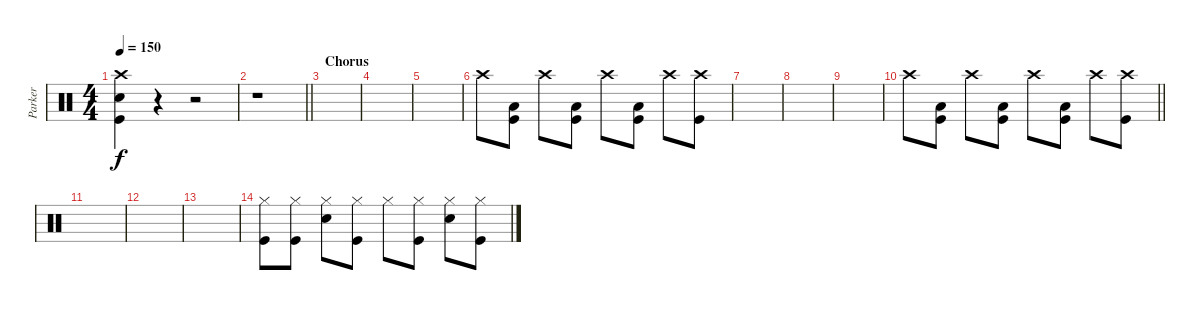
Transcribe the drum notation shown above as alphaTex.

\track ("Parker" "Parker") {instrument percussion}
\staff {score}
\articulation defaults
\ts (4 4)
\tempo 150
\clef neutral
\ks c
("Crash high (hit)" "Electric Snare (hit)" "Kick (hit)").4{dy f} r.4 r.2 |
\barLineRight lightlight
r.1 |
\section ("" "Chorus")
|
|
|
"Crash high (hit)".8 ("Low Floor Tom (hit)" "Kick (hit)").8 "Crash high (hit)".8 ("Low Floor Tom (hit)" "Kick (hit)").8 "Crash high (hit)".8 ("Low Floor Tom (hit)" "Kick (hit)").8 "Crash high (hit)".8 ("Crash high (hit)" "Kick (hit)").8 |
|
|
|
\barLineRight lightlight "Crash high (hit)".8
("Low Floor Tom (hit)" "Kick (hit)").8 "Crash high (hit)".8 ("Low Floor Tom (hit)" "Kick (hit)").8 "Crash high (hit)".8 ("Low Floor Tom (hit)" "Kick (hit)").8 "Crash high (hit)".8 ("Crash high (hit)" "Kick (hit)").8 |
|
|
|
("Hi-Hat (closed)" "Kick (hit)").8 ("Hi-Hat (closed)" "Kick (hit)").8 ("Hi-Hat (closed)" "Electric Snare (hit)").8 ("Hi-Hat (closed)" "Kick (hit)").8 "Hi-Hat (closed)".8 ("Hi-Hat (closed)" "Kick (hit)").8 ("Hi-Hat (closed)" "Electric Snare (hit)").8 ("Hi-Hat (closed)" "Kick (hit)").8
